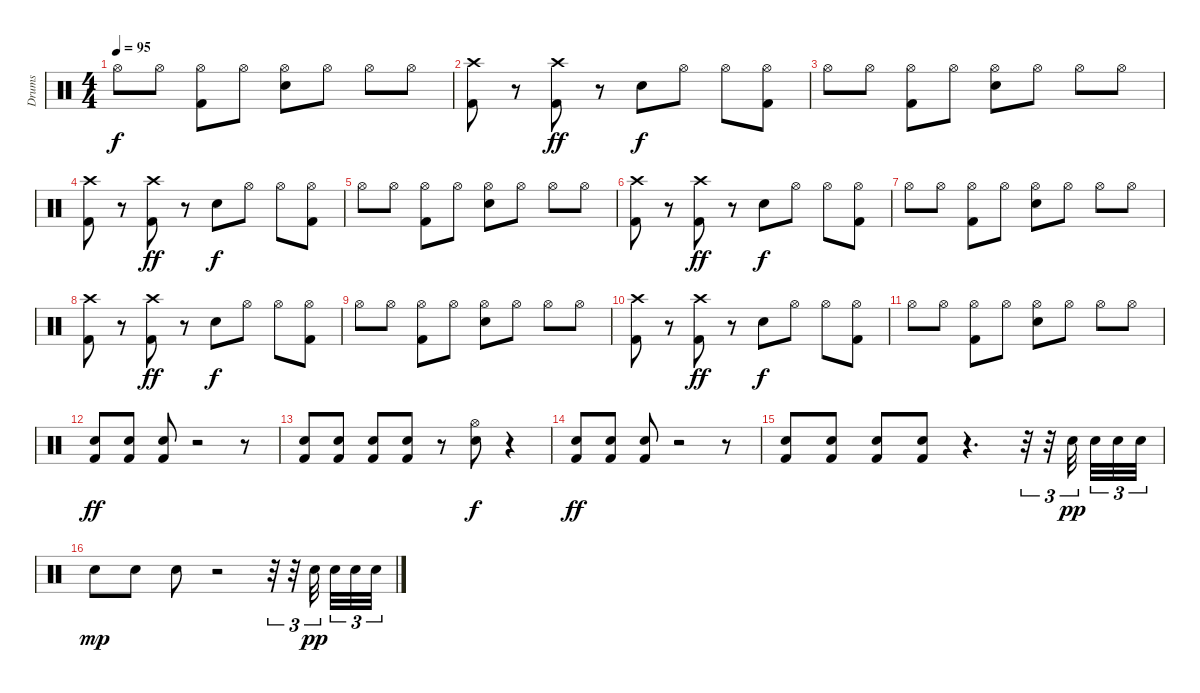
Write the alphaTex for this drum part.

\track ("Drums" "Drums") {instrument percussion}
\staff {score}
\articulation defaults
\ts (4 4)
\tempo 95
\clef neutral
\ks c "Hi-Hat (open)".8{dy f} "Hi-Hat (open)".8
("Hi-Hat (open)" "Kick (hit) 2").8 "Hi-Hat (open)".8 ("Snare (hit) 2" "Hi-Hat (open)").8 "Hi-Hat (open)".8 "Hi-Hat (open)".8 "Hi-Hat (open)".8 |
("Crash high (hit)" "Kick (hit) 2").8 r.8 ("Crash high (hit)" "Kick (hit) 2").8{dy ff} r.8 "Snare (hit) 2".8{dy f} "Hi-Hat (open)".8 "Hi-Hat (open)".8 ("Hi-Hat (open)" "Kick (hit) 2").8 |
"Hi-Hat (open)".8 "Hi-Hat (open)".8 ("Hi-Hat (open)" "Kick (hit) 2").8 "Hi-Hat (open)".8 ("Snare (hit) 2" "Hi-Hat (open)").8 "Hi-Hat (open)".8 "Hi-Hat (open)".8 "Hi-Hat (open)".8 |
("Crash high (hit)" "Kick (hit) 2").8 r.8 ("Crash high (hit)" "Kick (hit) 2").8{dy ff} r.8 "Snare (hit) 2".8{dy f} "Hi-Hat (open)".8 "Hi-Hat (open)".8 ("Hi-Hat (open)" "Kick (hit) 2").8 |
"Hi-Hat (open)".8 "Hi-Hat (open)".8 ("Hi-Hat (open)" "Kick (hit) 2").8 "Hi-Hat (open)".8 ("Snare (hit) 2" "Hi-Hat (open)").8 "Hi-Hat (open)".8 "Hi-Hat (open)".8 "Hi-Hat (open)".8 |
("Crash high (hit)" "Kick (hit) 2").8 r.8 ("Crash high (hit)" "Kick (hit) 2").8{dy ff} r.8 "Snare (hit) 2".8{dy f} "Hi-Hat (open)".8 "Hi-Hat (open)".8 ("Hi-Hat (open)" "Kick (hit) 2").8 |
"Hi-Hat (open)".8 "Hi-Hat (open)".8 ("Hi-Hat (open)" "Kick (hit) 2").8 "Hi-Hat (open)".8 ("Snare (hit) 2" "Hi-Hat (open)").8 "Hi-Hat (open)".8 "Hi-Hat (open)".8 "Hi-Hat (open)".8 |
("Crash high (hit)" "Kick (hit) 2").8 r.8 ("Crash high (hit)" "Kick (hit) 2").8{dy ff} r.8 "Snare (hit) 2".8{dy f} "Hi-Hat (open)".8 "Hi-Hat (open)".8 ("Hi-Hat (open)" "Kick (hit) 2").8 |
"Hi-Hat (open)".8 "Hi-Hat (open)".8 ("Hi-Hat (open)" "Kick (hit) 2").8 "Hi-Hat (open)".8 ("Snare (hit) 2" "Hi-Hat (open)").8 "Hi-Hat (open)".8 "Hi-Hat (open)".8 "Hi-Hat (open)".8 |
("Crash high (hit)" "Kick (hit) 2").8 r.8 ("Crash high (hit)" "Kick (hit) 2").8{dy ff} r.8 "Snare (hit) 2".8{dy f} "Hi-Hat (open)".8 "Hi-Hat (open)".8 ("Hi-Hat (open)" "Kick (hit) 2").8 |
"Hi-Hat (open)".8 "Hi-Hat (open)".8 ("Hi-Hat (open)" "Kick (hit) 2").8 "Hi-Hat (open)".8 ("Snare (hit) 2" "Hi-Hat (open)").8 "Hi-Hat (open)".8 "Hi-Hat (open)".8 "Hi-Hat (open)".8 |
("Snare (hit) 2" "Kick (hit) 2").8{dy ff} ("Snare (hit) 2" "Kick (hit) 2").8 ("Snare (hit) 2" "Kick (hit) 2").8 r.2 r.8 |
("Snare (hit) 2" "Kick (hit) 2").8 ("Snare (hit) 2" "Kick (hit) 2").8 ("Snare (hit) 2" "Kick (hit) 2").8 ("Snare (hit) 2" "Kick (hit) 2").8 r.8 ("Snare (hit) 2" "Hi-Hat (open)").8{dy f} r.4 |
("Snare (hit) 2" "Kick (hit) 2").8{dy ff} ("Snare (hit) 2" "Kick (hit) 2").8 ("Snare (hit) 2" "Kick (hit) 2").8 r.2 r.8 |
("Snare (hit) 2" "Kick (hit) 2").8 ("Snare (hit) 2" "Kick (hit) 2").8 ("Snare (hit) 2" "Kick (hit) 2").8 ("Snare (hit) 2" "Kick (hit) 2").8 r.4{d} r.32{tu (3 2)} r.32{tu (3 2)} "Electric Snare (hit)".32{tu (3 2) dy pp} "Electric Snare (hit)".32{tu (3 2)} "Electric Snare (hit)".32{tu (3 2)} "Electric Snare (hit)".32{tu (3 2)} |
"Electric Snare (hit)".8{dy mp} "Electric Snare (hit)".8 "Electric Snare (hit)".8 r.2 r.32{tu (3 2)} r.32{tu (3 2)} "Electric Snare (hit)".32{tu (3 2) dy pp} "Electric Snare (hit)".32{tu (3 2)} "Electric Snare (hit)".32{tu (3 2)} "Electric Snare (hit)".32{tu (3 2)}
